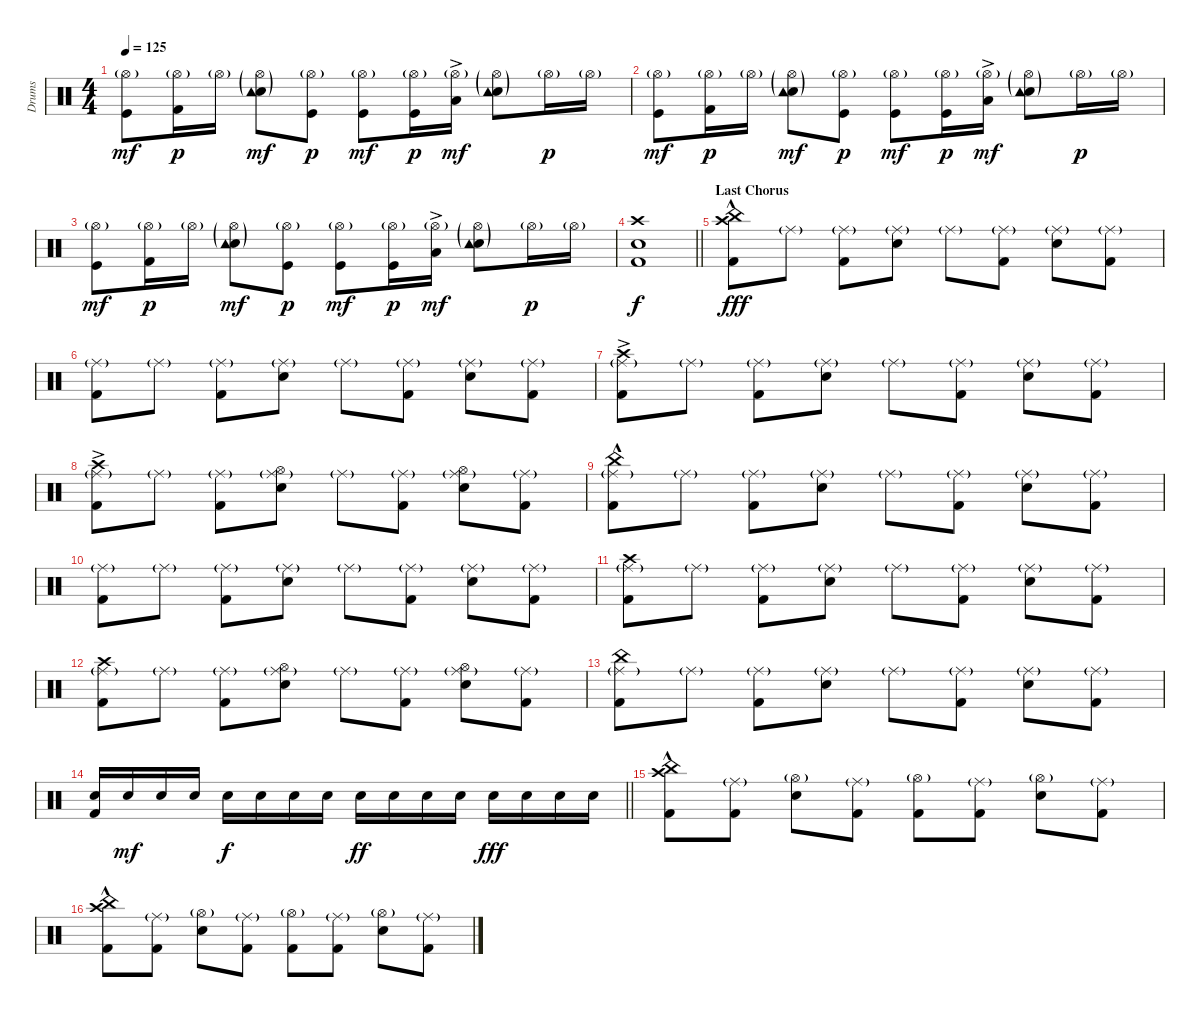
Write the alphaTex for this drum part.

\track ("Drums" "Drums") {instrument percussion}
\staff
\articulation defaults
\ts (4 4)
\tempo 125
\clef neutral
\ks c
("Hi-Hat (open)"{g} "Kick (hit)").8{dy mf} ("Hi-Hat (open)"{g} "Kick (hit) 2").16{dy p} "Hi-Hat (open)"{g}.16 ("Hi-Hat (open)"{g} "Snare (hit) 2"{g} "Tambourine (hit)").8{dy mf} ("Hi-Hat (open)"{g} "Kick (hit)").8{dy p} ("Hi-Hat (open)"{g} "Kick (hit)").8{dy mf} ("Hi-Hat (open)"{g} "Kick (hit)").16{dy p} ("Hi-Hat (open)"{g} "Low Tom (hit)"{ac}).16{dy mf} ("Hi-Hat (open)"{g} "Snare (hit) 2"{g} "Tambourine (hit)").8 "Hi-Hat (open)"{g}.16{dy p} "Hi-Hat (open)"{g}.16 |
("Hi-Hat (open)"{g} "Kick (hit)").8{dy mf} ("Hi-Hat (open)"{g} "Kick (hit) 2").16{dy p} "Hi-Hat (open)"{g}.16 ("Hi-Hat (open)"{g} "Snare (hit) 2"{g} "Tambourine (hit)").8{dy mf} ("Hi-Hat (open)"{g} "Kick (hit)").8{dy p} ("Hi-Hat (open)"{g} "Kick (hit)").8{dy mf} ("Hi-Hat (open)"{g} "Kick (hit)").16{dy p} ("Hi-Hat (open)"{g} "Low Tom (hit)"{ac}).16{dy mf} ("Hi-Hat (open)"{g} "Snare (hit) 2"{g} "Tambourine (hit)").8 "Hi-Hat (open)"{g}.16{dy p} "Hi-Hat (open)"{g}.16 |
("Hi-Hat (open)"{g} "Kick (hit)").8{dy mf} ("Hi-Hat (open)"{g} "Kick (hit) 2").16{dy p} "Hi-Hat (open)"{g}.16 ("Hi-Hat (open)"{g} "Snare (hit) 2"{g} "Tambourine (hit)").8{dy mf} ("Hi-Hat (open)"{g} "Kick (hit)").8{dy p} ("Hi-Hat (open)"{g} "Kick (hit)").8{dy mf} ("Hi-Hat (open)"{g} "Kick (hit)").16{dy p} ("Hi-Hat (open)"{g} "Low Tom (hit)"{ac}).16{dy mf} ("Hi-Hat (open)"{g} "Snare (hit) 2"{g} "Tambourine (hit)").8 "Hi-Hat (open)"{g}.16{dy p} "Hi-Hat (open)"{g}.16 |
\barLineRight lightlight
("Crash high (hit)" "Snare (hit) 2" "Kick (hit) 2").1{dy f} |
\section ("" "Last Chorus")
("Crash high (hit)" "Kick (hit) 2"{hac} "China (hit)"{hac}).8{dy fff} "Ride (middle)"{g}.8 ("Kick (hit) 2" "Ride (middle)"{g}).8 ("Snare (hit) 2" "Ride (middle)"{g}).8 "Ride (middle)"{g}.8 ("Kick (hit) 2" "Ride (middle)"{g}).8 ("Snare (hit) 2" "Ride (middle)"{g}).8 ("Kick (hit) 2" "Ride (middle)"{g}).8 |
("Kick (hit) 2" "Ride (middle)"{g}).8 "Ride (middle)"{g}.8 ("Kick (hit) 2" "Ride (middle)"{g}).8 ("Snare (hit) 2" "Ride (middle)"{g}).8 "Ride (middle)"{g}.8 ("Kick (hit) 2" "Ride (middle)"{g}).8 ("Snare (hit) 2" "Ride (middle)"{g}).8 ("Kick (hit) 2" "Ride (middle)"{g}).8 |
("Crash high (hit)"{ac} "Kick (hit) 2" "Ride (middle)"{g}).8 "Ride (middle)"{g}.8 ("Kick (hit) 2" "Ride (middle)"{g}).8 ("Snare (hit) 2" "Ride (middle)"{g}).8 "Ride (middle)"{g}.8 ("Kick (hit) 2" "Ride (middle)"{g}).8 ("Snare (hit) 2" "Ride (middle)"{g}).8 ("Kick (hit) 2" "Ride (middle)"{g}).8 |
("Crash high (hit)"{ac} "Kick (hit) 2" "Ride (middle)"{g}).8 "Ride (middle)"{g}.8 ("Kick (hit) 2" "Ride (middle)"{g}).8 ("Snare (hit) 2" "Hi-Hat (open)" "Ride (middle)"{g}).8 "Ride (middle)"{g}.8 ("Kick (hit) 2" "Ride (middle)"{g}).8 ("Snare (hit) 2" "Hi-Hat (open)" "Ride (middle)"{g}).8 ("Kick (hit) 2" "Ride (middle)"{g}).8 |
("China (hit)"{hac} "Kick (hit) 2" "Ride (middle)"{g}).8 "Ride (middle)"{g}.8 ("Kick (hit) 2" "Ride (middle)"{g}).8 ("Snare (hit) 2" "Ride (middle)"{g}).8 "Ride (middle)"{g}.8 ("Kick (hit) 2" "Ride (middle)"{g}).8 ("Snare (hit) 2" "Ride (middle)"{g}).8 ("Kick (hit) 2" "Ride (middle)"{g}).8 |
("Kick (hit) 2" "Ride (middle)"{g}).8 "Ride (middle)"{g}.8 ("Kick (hit) 2" "Ride (middle)"{g}).8 ("Snare (hit) 2" "Ride (middle)"{g}).8 "Ride (middle)"{g}.8 ("Kick (hit) 2" "Ride (middle)"{g}).8 ("Snare (hit) 2" "Ride (middle)"{g}).8 ("Kick (hit) 2" "Ride (middle)"{g}).8 |
("Crash high (hit)" "Kick (hit) 2" "Ride (middle)"{g}).8 "Ride (middle)"{g}.8 ("Kick (hit) 2" "Ride (middle)"{g}).8 ("Snare (hit) 2" "Ride (middle)"{g}).8 "Ride (middle)"{g}.8 ("Kick (hit) 2" "Ride (middle)"{g}).8 ("Snare (hit) 2" "Ride (middle)"{g}).8 ("Kick (hit) 2" "Ride (middle)"{g}).8 |
("Crash high (hit)" "Kick (hit) 2" "Ride (middle)"{g}).8 "Ride (middle)"{g}.8 ("Kick (hit) 2" "Ride (middle)"{g}).8 ("Snare (hit) 2" "Hi-Hat (open)" "Ride (middle)"{g}).8 "Ride (middle)"{g}.8 ("Kick (hit) 2" "Ride (middle)"{g}).8 ("Snare (hit) 2" "Hi-Hat (open)" "Ride (middle)"{g}).8 ("Kick (hit) 2" "Ride (middle)"{g}).8 |
("China (hit)" "Kick (hit) 2" "Ride (middle)"{g}).8 "Ride (middle)"{g}.8 ("Kick (hit) 2" "Ride (middle)"{g}).8 ("Snare (hit) 2" "Ride (middle)"{g}).8 "Ride (middle)"{g}.8 ("Kick (hit) 2" "Ride (middle)"{g}).8 ("Snare (hit) 2" "Ride (middle)"{g}).8 ("Kick (hit) 2" "Ride (middle)"{g}).8 |
\barLineRight lightlight
("Snare (hit) 2" "Kick (hit) 2").16 "Snare (hit) 2".16{dy mf} "Snare (hit) 2".16 "Snare (hit) 2".16 "Snare (hit) 2".16{dy f} "Snare (hit) 2".16 "Snare (hit) 2".16 "Snare (hit) 2".16 "Snare (hit) 2".16{dy ff} "Snare (hit) 2".16 "Snare (hit) 2".16 "Snare (hit) 2".16 "Snare (hit) 2".16{dy fff} "Snare (hit) 2".16 "Snare (hit) 2".16 "Snare (hit) 2".16 |
("Crash high (hit)" "Kick (hit) 2"{hac} "China (hit)"{hac}).8 ("Kick (hit) 2" "Ride (middle)"{g}).8 ("Snare (hit) 2" "Hi-Hat (open)"{g}).8 ("Kick (hit) 2" "Ride (middle)"{g}).8 ("Kick (hit) 2" "Hi-Hat (open)"{g}).8 ("Kick (hit) 2" "Ride (middle)"{g}).8 ("Snare (hit) 2" "Hi-Hat (open)"{g}).8 ("Kick (hit) 2" "Ride (middle)"{g}).8 |
("Crash high (hit)" "Kick (hit) 2"{hac} "China (hit)"{hac}).8 ("Kick (hit) 2" "Ride (middle)"{g}).8 ("Snare (hit) 2" "Hi-Hat (open)"{g}).8 ("Kick (hit) 2" "Ride (middle)"{g}).8 ("Kick (hit) 2" "Hi-Hat (open)"{g}).8 ("Kick (hit) 2" "Ride (middle)"{g}).8 ("Snare (hit) 2" "Hi-Hat (open)"{g}).8 ("Kick (hit) 2" "Ride (middle)"{g}).8
